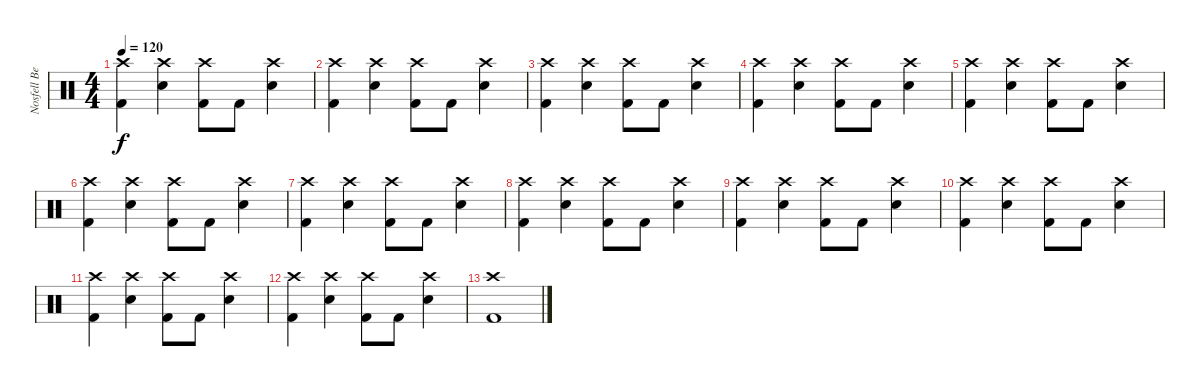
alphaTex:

\track ("Nosfell Beat Box" "Nosfell Be") {instrument percussion}
\staff {score}
\articulation defaults
\ts (4 4)
\tempo 120
\clef neutral
\ks c
("Crash high (hit)" "Kick (hit) 2").4{dy f} ("Crash high (hit)" "Electric Snare (hit)").4 ("Crash high (hit)" "Kick (hit) 2").8 "Kick (hit) 2".8 ("Crash high (hit)" "Electric Snare (hit)").4 |
("Crash high (hit)" "Kick (hit) 2").4 ("Crash high (hit)" "Electric Snare (hit)").4 ("Crash high (hit)" "Kick (hit) 2").8 "Kick (hit) 2".8 ("Crash high (hit)" "Electric Snare (hit)").4 |
("Crash high (hit)" "Kick (hit) 2").4 ("Crash high (hit)" "Electric Snare (hit)").4 ("Crash high (hit)" "Kick (hit) 2").8 "Kick (hit) 2".8 ("Crash high (hit)" "Electric Snare (hit)").4 |
("Crash high (hit)" "Kick (hit) 2").4 ("Crash high (hit)" "Electric Snare (hit)").4 ("Crash high (hit)" "Kick (hit) 2").8 "Kick (hit) 2".8 ("Crash high (hit)" "Electric Snare (hit)").4 |
("Crash high (hit)" "Kick (hit) 2").4 ("Crash high (hit)" "Electric Snare (hit)").4 ("Crash high (hit)" "Kick (hit) 2").8 "Kick (hit) 2".8 ("Crash high (hit)" "Electric Snare (hit)").4 |
("Crash high (hit)" "Kick (hit) 2").4 ("Crash high (hit)" "Electric Snare (hit)").4 ("Crash high (hit)" "Kick (hit) 2").8 "Kick (hit) 2".8 ("Crash high (hit)" "Electric Snare (hit)").4 |
("Crash high (hit)" "Kick (hit) 2").4 ("Crash high (hit)" "Electric Snare (hit)").4 ("Crash high (hit)" "Kick (hit) 2").8 "Kick (hit) 2".8 ("Crash high (hit)" "Electric Snare (hit)").4 |
("Crash high (hit)" "Kick (hit) 2").4 ("Crash high (hit)" "Electric Snare (hit)").4 ("Crash high (hit)" "Kick (hit) 2").8 "Kick (hit) 2".8 ("Crash high (hit)" "Electric Snare (hit)").4 |
("Crash high (hit)" "Kick (hit) 2").4 ("Crash high (hit)" "Electric Snare (hit)").4 ("Crash high (hit)" "Kick (hit) 2").8 "Kick (hit) 2".8 ("Crash high (hit)" "Electric Snare (hit)").4 |
("Crash high (hit)" "Kick (hit) 2").4 ("Crash high (hit)" "Electric Snare (hit)").4 ("Crash high (hit)" "Kick (hit) 2").8 "Kick (hit) 2".8 ("Crash high (hit)" "Electric Snare (hit)").4 |
("Crash high (hit)" "Kick (hit) 2").4 ("Crash high (hit)" "Electric Snare (hit)").4 ("Crash high (hit)" "Kick (hit) 2").8 "Kick (hit) 2".8 ("Crash high (hit)" "Electric Snare (hit)").4 |
("Crash high (hit)" "Kick (hit) 2").4 ("Crash high (hit)" "Electric Snare (hit)").4 ("Crash high (hit)" "Kick (hit) 2").8 "Kick (hit) 2".8 ("Crash high (hit)" "Electric Snare (hit)").4 |
("Crash high (hit)" "Kick (hit) 2").1
